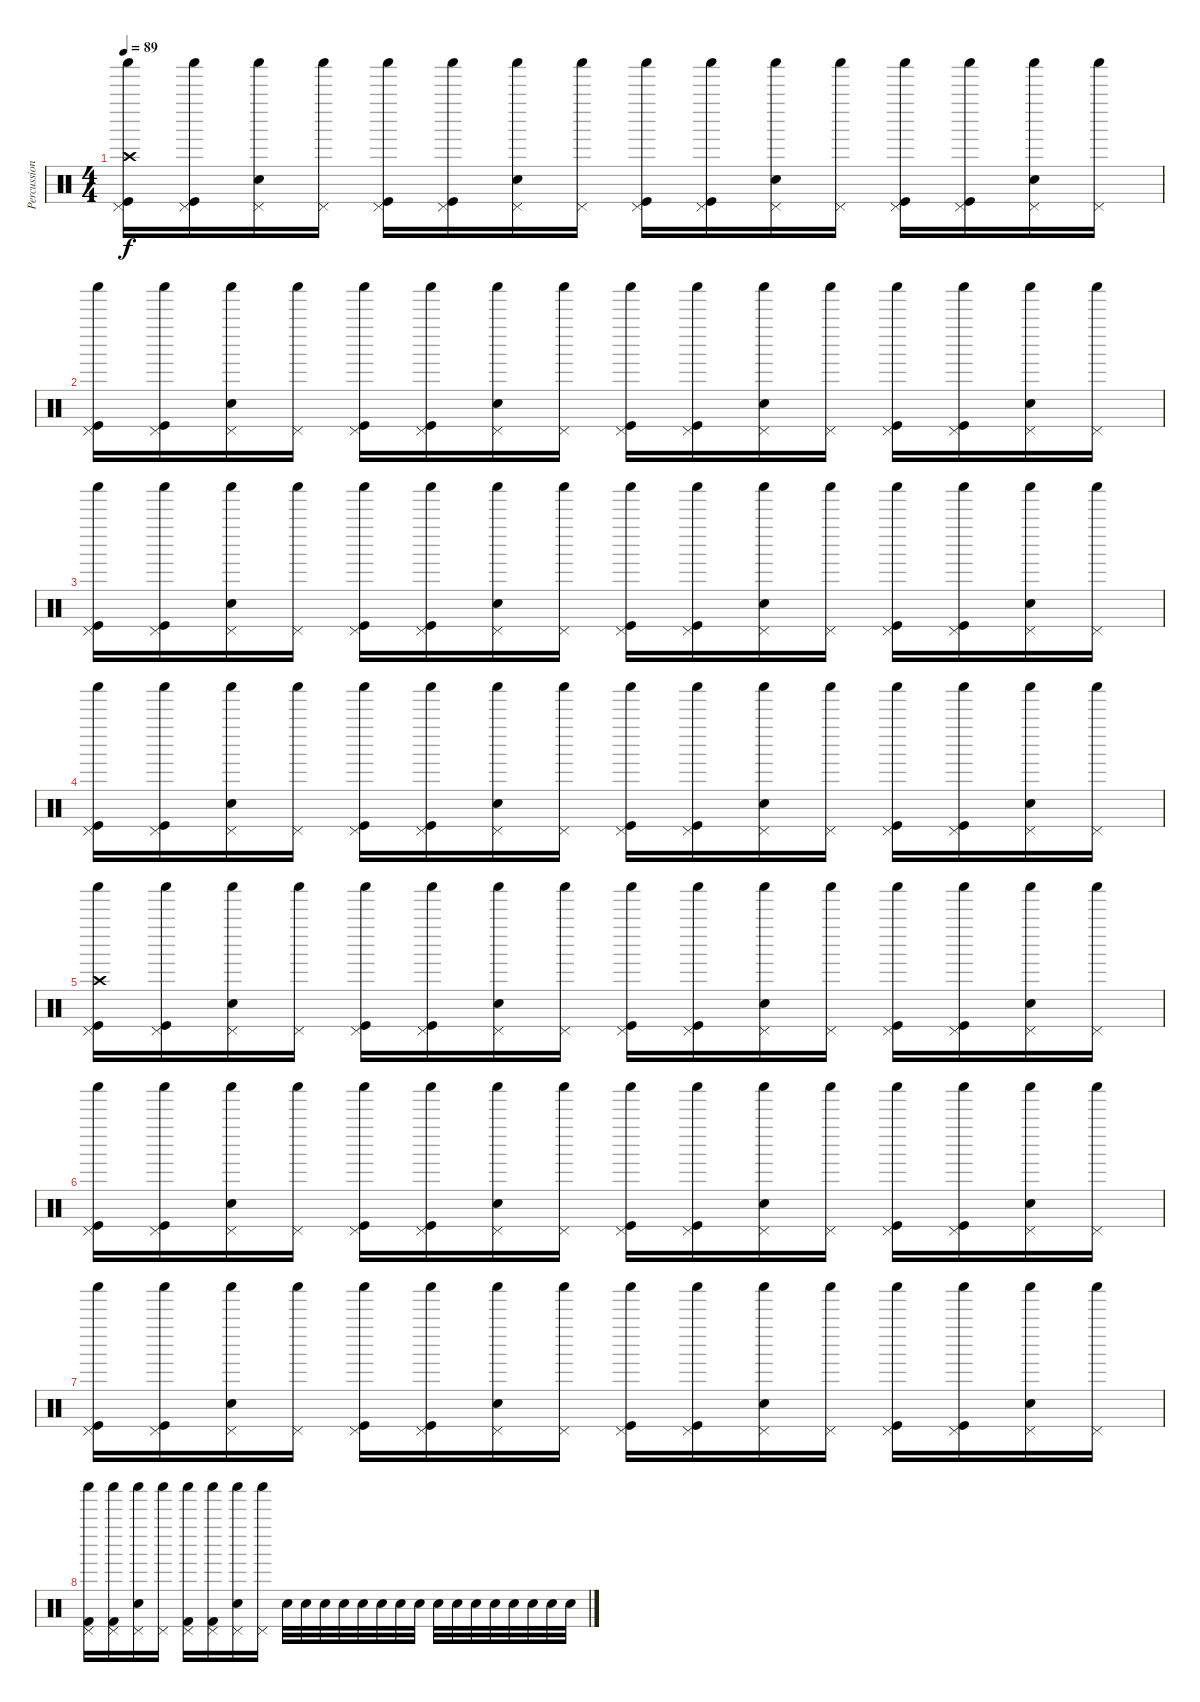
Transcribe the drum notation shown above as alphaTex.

\track ("Percussion" "Percussion") {instrument percussion}
\staff {score}
\articulation defaults
\ts (4 4)
\tempo 89
\clef neutral
\ks c
("Pedal Hi-Hat (hit)" "Shaker (hit)" "Crash high (hit)" "Kick (hit)").16{dy f} ("Pedal Hi-Hat (hit)" "Shaker (hit)" "Kick (hit)").16 ("Pedal Hi-Hat (hit)" "Shaker (hit)" "Snare (hit) 2").16 ("Pedal Hi-Hat (hit)" "Shaker (hit)").16 ("Pedal Hi-Hat (hit)" "Shaker (hit)" "Kick (hit)").16 ("Pedal Hi-Hat (hit)" "Shaker (hit)" "Kick (hit)").16 ("Pedal Hi-Hat (hit)" "Shaker (hit)" "Snare (hit) 2").16 ("Pedal Hi-Hat (hit)" "Shaker (hit)").16 ("Pedal Hi-Hat (hit)" "Shaker (hit)" "Kick (hit)").16 ("Pedal Hi-Hat (hit)" "Shaker (hit)" "Kick (hit)").16 ("Pedal Hi-Hat (hit)" "Shaker (hit)" "Snare (hit) 2").16 ("Pedal Hi-Hat (hit)" "Shaker (hit)").16 ("Pedal Hi-Hat (hit)" "Shaker (hit)" "Kick (hit)").16 ("Pedal Hi-Hat (hit)" "Shaker (hit)" "Kick (hit)").16 ("Pedal Hi-Hat (hit)" "Shaker (hit)" "Snare (hit) 2").16 ("Pedal Hi-Hat (hit)" "Shaker (hit)").16 |
("Pedal Hi-Hat (hit)" "Shaker (hit)" "Kick (hit)").16 ("Pedal Hi-Hat (hit)" "Shaker (hit)" "Kick (hit)").16 ("Pedal Hi-Hat (hit)" "Shaker (hit)" "Snare (hit) 2").16 ("Pedal Hi-Hat (hit)" "Shaker (hit)").16 ("Pedal Hi-Hat (hit)" "Shaker (hit)" "Kick (hit)").16 ("Pedal Hi-Hat (hit)" "Shaker (hit)" "Kick (hit)").16 ("Pedal Hi-Hat (hit)" "Shaker (hit)" "Snare (hit) 2").16 ("Pedal Hi-Hat (hit)" "Shaker (hit)").16 ("Pedal Hi-Hat (hit)" "Shaker (hit)" "Kick (hit)").16 ("Pedal Hi-Hat (hit)" "Shaker (hit)" "Kick (hit)").16 ("Pedal Hi-Hat (hit)" "Shaker (hit)" "Snare (hit) 2").16 ("Pedal Hi-Hat (hit)" "Shaker (hit)").16 ("Pedal Hi-Hat (hit)" "Shaker (hit)" "Kick (hit)").16 ("Pedal Hi-Hat (hit)" "Shaker (hit)" "Kick (hit)").16 ("Pedal Hi-Hat (hit)" "Shaker (hit)" "Snare (hit) 2").16 ("Pedal Hi-Hat (hit)" "Shaker (hit)").16 |
("Pedal Hi-Hat (hit)" "Shaker (hit)" "Kick (hit)").16 ("Pedal Hi-Hat (hit)" "Shaker (hit)" "Kick (hit)").16 ("Pedal Hi-Hat (hit)" "Shaker (hit)" "Snare (hit) 2").16 ("Pedal Hi-Hat (hit)" "Shaker (hit)").16 ("Pedal Hi-Hat (hit)" "Shaker (hit)" "Kick (hit)").16 ("Pedal Hi-Hat (hit)" "Shaker (hit)" "Kick (hit)").16 ("Pedal Hi-Hat (hit)" "Shaker (hit)" "Snare (hit) 2").16 ("Pedal Hi-Hat (hit)" "Shaker (hit)").16 ("Pedal Hi-Hat (hit)" "Shaker (hit)" "Kick (hit)").16 ("Pedal Hi-Hat (hit)" "Shaker (hit)" "Kick (hit)").16 ("Pedal Hi-Hat (hit)" "Shaker (hit)" "Snare (hit) 2").16 ("Pedal Hi-Hat (hit)" "Shaker (hit)").16 ("Pedal Hi-Hat (hit)" "Shaker (hit)" "Kick (hit)").16 ("Pedal Hi-Hat (hit)" "Shaker (hit)" "Kick (hit)").16 ("Pedal Hi-Hat (hit)" "Shaker (hit)" "Snare (hit) 2").16 ("Pedal Hi-Hat (hit)" "Shaker (hit)").16 |
("Pedal Hi-Hat (hit)" "Shaker (hit)" "Kick (hit)").16 ("Pedal Hi-Hat (hit)" "Shaker (hit)" "Kick (hit)").16 ("Pedal Hi-Hat (hit)" "Shaker (hit)" "Snare (hit) 2").16 ("Pedal Hi-Hat (hit)" "Shaker (hit)").16 ("Pedal Hi-Hat (hit)" "Shaker (hit)" "Kick (hit)").16 ("Pedal Hi-Hat (hit)" "Shaker (hit)" "Kick (hit)").16 ("Pedal Hi-Hat (hit)" "Shaker (hit)" "Snare (hit) 2").16 ("Pedal Hi-Hat (hit)" "Shaker (hit)").16 ("Pedal Hi-Hat (hit)" "Shaker (hit)" "Kick (hit)").16 ("Pedal Hi-Hat (hit)" "Shaker (hit)" "Kick (hit)").16 ("Pedal Hi-Hat (hit)" "Shaker (hit)" "Snare (hit) 2").16 ("Pedal Hi-Hat (hit)" "Shaker (hit)").16 ("Pedal Hi-Hat (hit)" "Shaker (hit)" "Kick (hit)").16 ("Pedal Hi-Hat (hit)" "Shaker (hit)" "Kick (hit)").16 ("Pedal Hi-Hat (hit)" "Shaker (hit)" "Snare (hit) 2").16 ("Pedal Hi-Hat (hit)" "Shaker (hit)").16 |
("Pedal Hi-Hat (hit)" "Shaker (hit)" "Crash high (hit)" "Kick (hit)").16 ("Pedal Hi-Hat (hit)" "Shaker (hit)" "Kick (hit)").16 ("Pedal Hi-Hat (hit)" "Shaker (hit)" "Snare (hit) 2").16 ("Pedal Hi-Hat (hit)" "Shaker (hit)").16 ("Pedal Hi-Hat (hit)" "Shaker (hit)" "Kick (hit)").16 ("Pedal Hi-Hat (hit)" "Shaker (hit)" "Kick (hit)").16 ("Pedal Hi-Hat (hit)" "Shaker (hit)" "Snare (hit) 2").16 ("Pedal Hi-Hat (hit)" "Shaker (hit)").16 ("Pedal Hi-Hat (hit)" "Shaker (hit)" "Kick (hit)").16 ("Pedal Hi-Hat (hit)" "Shaker (hit)" "Kick (hit)").16 ("Pedal Hi-Hat (hit)" "Shaker (hit)" "Snare (hit) 2").16 ("Pedal Hi-Hat (hit)" "Shaker (hit)").16 ("Pedal Hi-Hat (hit)" "Shaker (hit)" "Kick (hit)").16 ("Pedal Hi-Hat (hit)" "Shaker (hit)" "Kick (hit)").16 ("Pedal Hi-Hat (hit)" "Shaker (hit)" "Snare (hit) 2").16 ("Pedal Hi-Hat (hit)" "Shaker (hit)").16 |
("Pedal Hi-Hat (hit)" "Shaker (hit)" "Kick (hit)").16 ("Pedal Hi-Hat (hit)" "Shaker (hit)" "Kick (hit)").16 ("Pedal Hi-Hat (hit)" "Shaker (hit)" "Snare (hit) 2").16 ("Pedal Hi-Hat (hit)" "Shaker (hit)").16 ("Pedal Hi-Hat (hit)" "Shaker (hit)" "Kick (hit)").16 ("Pedal Hi-Hat (hit)" "Shaker (hit)" "Kick (hit)").16 ("Pedal Hi-Hat (hit)" "Shaker (hit)" "Snare (hit) 2").16 ("Pedal Hi-Hat (hit)" "Shaker (hit)").16 ("Pedal Hi-Hat (hit)" "Shaker (hit)" "Kick (hit)").16 ("Pedal Hi-Hat (hit)" "Shaker (hit)" "Kick (hit)").16 ("Pedal Hi-Hat (hit)" "Shaker (hit)" "Snare (hit) 2").16 ("Pedal Hi-Hat (hit)" "Shaker (hit)").16 ("Pedal Hi-Hat (hit)" "Shaker (hit)" "Kick (hit)").16 ("Pedal Hi-Hat (hit)" "Shaker (hit)" "Kick (hit)").16 ("Pedal Hi-Hat (hit)" "Shaker (hit)" "Snare (hit) 2").16 ("Pedal Hi-Hat (hit)" "Shaker (hit)").16 |
("Pedal Hi-Hat (hit)" "Shaker (hit)" "Kick (hit)").16 ("Pedal Hi-Hat (hit)" "Shaker (hit)" "Kick (hit)").16 ("Pedal Hi-Hat (hit)" "Shaker (hit)" "Snare (hit) 2").16 ("Pedal Hi-Hat (hit)" "Shaker (hit)").16 ("Pedal Hi-Hat (hit)" "Shaker (hit)" "Kick (hit)").16 ("Pedal Hi-Hat (hit)" "Shaker (hit)" "Kick (hit)").16 ("Pedal Hi-Hat (hit)" "Shaker (hit)" "Snare (hit) 2").16 ("Pedal Hi-Hat (hit)" "Shaker (hit)").16 ("Pedal Hi-Hat (hit)" "Shaker (hit)" "Kick (hit)").16 ("Pedal Hi-Hat (hit)" "Shaker (hit)" "Kick (hit)").16 ("Pedal Hi-Hat (hit)" "Shaker (hit)" "Snare (hit) 2").16 ("Pedal Hi-Hat (hit)" "Shaker (hit)").16 ("Pedal Hi-Hat (hit)" "Shaker (hit)" "Kick (hit)").16 ("Pedal Hi-Hat (hit)" "Shaker (hit)" "Kick (hit)").16 ("Pedal Hi-Hat (hit)" "Shaker (hit)" "Snare (hit) 2").16 ("Pedal Hi-Hat (hit)" "Shaker (hit)").16 |
("Pedal Hi-Hat (hit)" "Shaker (hit)" "Kick (hit) 2").16 ("Pedal Hi-Hat (hit)" "Shaker (hit)" "Kick (hit) 2").16 ("Pedal Hi-Hat (hit)" "Shaker (hit)" "Snare (hit) 2").16 ("Pedal Hi-Hat (hit)" "Shaker (hit)").16 ("Pedal Hi-Hat (hit)" "Shaker (hit)" "Kick (hit) 2").16 ("Pedal Hi-Hat (hit)" "Shaker (hit)" "Kick (hit) 2").16 ("Pedal Hi-Hat (hit)" "Shaker (hit)" "Snare (hit) 2").16 ("Pedal Hi-Hat (hit)" "Shaker (hit)").16 "Snare (hit) 2".32 "Snare (hit) 2".32 "Snare (hit) 2".32 "Snare (hit) 2".32 "Snare (hit) 2".32 "Snare (hit) 2".32 "Snare (hit) 2".32 "Snare (hit) 2".32 "Snare (hit) 2".32 "Snare (hit) 2".32 "Snare (hit) 2".32 "Snare (hit) 2".32 "Snare (hit) 2".32 "Snare (hit) 2".32 "Snare (hit) 2".32 "Snare (hit) 2".32
